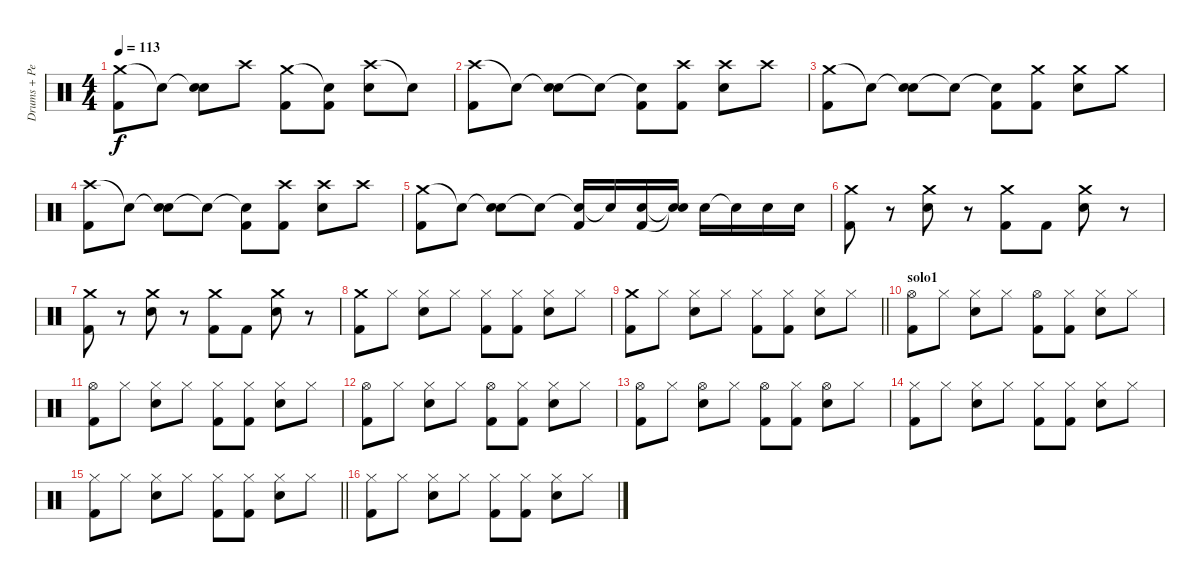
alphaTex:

\track ("Drums + Percussion" "Drums + Pe") {instrument percussion}
\staff {score}
\articulation defaults
\ts (4 4)
\tempo 113
\clef neutral
\ks c
("Crash medium (hit)" "Kick (hit) 2").8{dy f} "Snare (hit)"{t}.8 ("Snare (hit)"{t} "Snare (hit) 2").8 "Crash high (hit)".8 ("Crash medium (hit)" "Kick (hit) 2").8 ("Snare (hit)"{t} "Kick (hit) 2").8 ("Crash high (hit)" "Snare (hit) 2").8 "Snare (hit)"{t}.8 |
("Crash high (hit)" "Kick (hit) 2").8 "Snare (hit)"{t}.8 ("Snare (hit)"{t} "Snare (hit) 2").8 "Snare (hit)"{t}.8 ("Snare (hit)"{t} "Kick (hit) 2").8 ("Crash high (hit)" "Kick (hit) 2").8 ("Crash high (hit)" "Snare (hit) 2").8 "Crash high (hit)".8 |
("Crash medium (hit)" "Kick (hit) 2").8 "Snare (hit)"{t}.8 ("Snare (hit)"{t} "Snare (hit) 2").8 "Snare (hit)"{t}.8 ("Snare (hit)"{t} "Kick (hit) 2").8 ("Crash medium (hit)" "Kick (hit) 2").8 ("Crash medium (hit)" "Snare (hit) 2").8 "Crash medium (hit)".8 |
("Crash high (hit)" "Kick (hit) 2").8 "Snare (hit)"{t}.8 ("Snare (hit)"{t} "Snare (hit) 2").8 "Snare (hit)"{t}.8 ("Snare (hit)"{t} "Kick (hit) 2").8 ("Crash high (hit)" "Kick (hit) 2").8 ("Crash high (hit)" "Snare (hit) 2").8 "Crash high (hit)".8 |
("Crash medium (hit)" "Kick (hit) 2").8 "Snare (hit)"{t}.8 ("Snare (hit)"{t} "Snare (hit) 2").8 "Snare (hit)"{t}.8 ("Snare (hit)"{t} "Kick (hit) 2").16 "Snare (hit)"{t}.16 ("Snare (hit) 2" "Kick (hit) 2").16 ("Snare (hit)"{t} "Snare (hit)"{t}).16 "Snare (hit) 2".16 "Snare (hit) 2"{t}.16 "Snare (hit) 2".16 "Snare (hit) 2".16 |
("Crash medium (hit)" "Kick (hit) 2").8 r.8 ("Crash medium (hit)" "Snare (hit) 2").8 r.8 ("Crash medium (hit)" "Kick (hit) 2").8 "Kick (hit) 2".8 ("Crash medium (hit)" "Snare (hit) 2").8 r.8 |
("Crash medium (hit)" "Kick (hit) 2").8 r.8 ("Crash medium (hit)" "Snare (hit) 2").8 r.8 ("Crash medium (hit)" "Kick (hit) 2").8 "Kick (hit) 2".8 ("Crash medium (hit)" "Snare (hit) 2").8 r.8 |
("Crash medium (hit)" "Kick (hit) 2").8 "Hi-Hat (closed)".8 ("Hi-Hat (closed)" "Snare (hit) 2").8 "Hi-Hat (closed)".8 ("Hi-Hat (closed)" "Kick (hit) 2").8 ("Hi-Hat (closed)" "Kick (hit) 2").8 ("Hi-Hat (closed)" "Snare (hit) 2").8 "Hi-Hat (closed)".8 |
\barLineRight lightlight
("Crash medium (hit)" "Kick (hit) 2").8 "Hi-Hat (closed)".8 ("Hi-Hat (closed)" "Snare (hit) 2").8 "Hi-Hat (closed)".8 ("Hi-Hat (closed)" "Kick (hit) 2").8 ("Hi-Hat (closed)" "Kick (hit) 2").8 ("Hi-Hat (closed)" "Snare (hit) 2").8 "Hi-Hat (closed)".8 |
\section ("" "solo1")
("Hi-Hat (open)" "Kick (hit) 2").8 "Hi-Hat (closed)".8 ("Hi-Hat (closed)" "Snare (hit) 2").8 "Hi-Hat (closed)".8 ("Hi-Hat (open)" "Kick (hit) 2").8 ("Hi-Hat (closed)" "Kick (hit) 2").8 ("Hi-Hat (closed)" "Snare (hit) 2").8 "Hi-Hat (closed)".8 |
("Hi-Hat (open)" "Kick (hit) 2").8 "Hi-Hat (closed)".8 ("Hi-Hat (closed)" "Snare (hit) 2").8 "Hi-Hat (closed)".8 ("Hi-Hat (closed)" "Kick (hit) 2").8 ("Hi-Hat (closed)" "Kick (hit) 2").8 ("Hi-Hat (closed)" "Snare (hit) 2").8 "Hi-Hat (closed)".8 |
("Hi-Hat (open)" "Kick (hit) 2").8 "Hi-Hat (closed)".8 ("Hi-Hat (closed)" "Snare (hit) 2").8 "Hi-Hat (closed)".8 ("Hi-Hat (open)" "Kick (hit) 2").8 ("Hi-Hat (closed)" "Kick (hit) 2").8 ("Hi-Hat (closed)" "Snare (hit) 2").8 "Hi-Hat (closed)".8 |
("Hi-Hat (open)" "Kick (hit) 2").8 "Hi-Hat (closed)".8 ("Hi-Hat (open)" "Snare (hit) 2").8 "Hi-Hat (closed)".8 ("Hi-Hat (open)" "Kick (hit) 2").8 ("Hi-Hat (closed)" "Kick (hit) 2").8 ("Hi-Hat (open)" "Snare (hit) 2").8 "Hi-Hat (closed)".8 |
("Hi-Hat (closed)" "Kick (hit) 2").8 "Hi-Hat (closed)".8 ("Hi-Hat (closed)" "Snare (hit) 2").8 "Hi-Hat (closed)".8 ("Hi-Hat (closed)" "Kick (hit) 2").8 ("Hi-Hat (closed)" "Kick (hit) 2").8 ("Hi-Hat (closed)" "Snare (hit) 2").8 "Hi-Hat (closed)".8 |
\barLineRight lightlight
("Hi-Hat (closed)" "Kick (hit) 2").8 "Hi-Hat (closed)".8 ("Hi-Hat (closed)" "Snare (hit) 2").8 "Hi-Hat (closed)".8 ("Hi-Hat (closed)" "Kick (hit) 2").8 ("Hi-Hat (closed)" "Kick (hit) 2").8 ("Hi-Hat (closed)" "Snare (hit) 2").8 "Hi-Hat (closed)".8 |
("Hi-Hat (closed)" "Kick (hit) 2").8 "Hi-Hat (closed)".8 ("Hi-Hat (closed)" "Snare (hit) 2").8 "Hi-Hat (closed)".8 ("Hi-Hat (closed)" "Kick (hit) 2").8 ("Hi-Hat (closed)" "Kick (hit) 2").8 ("Hi-Hat (closed)" "Snare (hit) 2").8 "Hi-Hat (closed)".8
